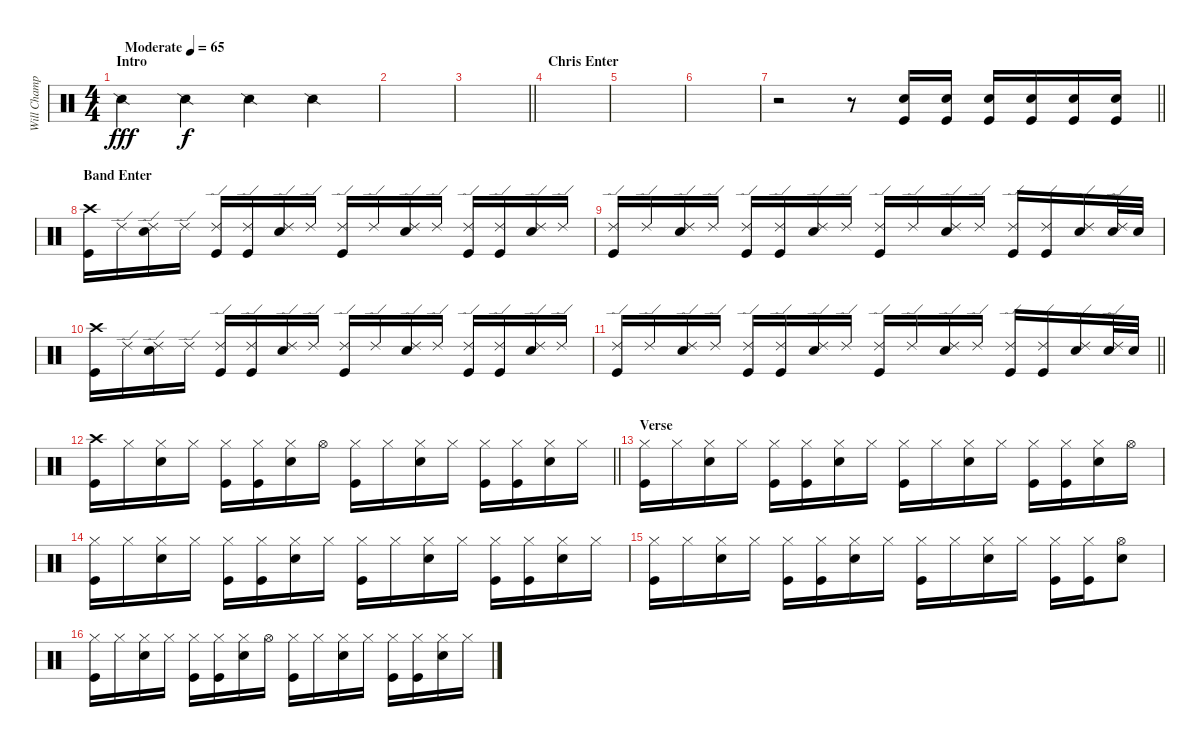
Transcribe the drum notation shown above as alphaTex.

\track ("Will Champion-Drums" "Will Champ") {instrument percussion}
\staff {score}
\articulation defaults
\ts (4 4)
\section ("" "Intro")
\tempo (65 "Moderate")
\clef neutral
\ks c "Snare (side stick) 2".4{dy fff} "Snare (side stick) 2".4{dy f} "Snare (side stick) 2".4 "Snare (side stick) 2".4
|
|
\barLineRight lightlight
|
\section ("" "Chris Enter")
|
|
|
\barLineRight lightlight
r.2 r.8 ("Snare (hit) 2" "Kick (hit)").16 ("Snare (hit) 2" "Kick (hit)").16 ("Snare (hit) 2" "Kick (hit)").16 ("Snare (hit) 2" "Kick (hit)").16 ("Snare (hit) 2" "Kick (hit)").16 ("Snare (hit) 2" "Kick (hit)").16 |
\section ("" "Band Enter")
("Crash high (hit)" "Kick (hit)").16 "Ride (edge) 2".16 ("Ride (edge) 2" "Snare (hit) 2").16 "Ride (edge) 2".16 ("Ride (edge) 2" "Kick (hit)").16 ("Ride (edge) 2" "Kick (hit)").16 ("Ride (edge) 2" "Snare (hit) 2").16 "Ride (edge) 2".16 ("Ride (edge) 2" "Kick (hit)").16 "Ride (edge) 2".16 ("Ride (edge) 2" "Snare (hit) 2").16 "Ride (edge) 2".16 ("Ride (edge) 2" "Kick (hit)").16 ("Ride (edge) 2" "Kick (hit)").16 ("Ride (edge) 2" "Snare (hit) 2").16 "Ride (edge) 2".16 |
("Ride (edge) 2" "Kick (hit)").16 "Ride (edge) 2".16 ("Ride (edge) 2" "Snare (hit) 2").16 "Ride (edge) 2".16 ("Ride (edge) 2" "Kick (hit)").16 ("Ride (edge) 2" "Kick (hit)").16 ("Ride (edge) 2" "Snare (hit) 2").16 "Ride (edge) 2".16 ("Ride (edge) 2" "Kick (hit)").16 "Ride (edge) 2".16 ("Ride (edge) 2" "Snare (hit) 2").16 "Ride (edge) 2".16 ("Ride (edge) 2" "Kick (hit)").16 ("Ride (edge) 2" "Kick (hit)").16 ("Ride (edge) 2" "Snare (hit) 2").16 ("Ride (edge) 2" "Snare (hit) 2").32 "Snare (hit) 2".32 |
("Crash high (hit)" "Kick (hit)").16 "Ride (edge) 2".16 ("Ride (edge) 2" "Snare (hit) 2").16 "Ride (edge) 2".16 ("Ride (edge) 2" "Kick (hit)").16 ("Ride (edge) 2" "Kick (hit)").16 ("Ride (edge) 2" "Snare (hit) 2").16 "Ride (edge) 2".16 ("Ride (edge) 2" "Kick (hit)").16 "Ride (edge) 2".16 ("Ride (edge) 2" "Snare (hit) 2").16 "Ride (edge) 2".16 ("Ride (edge) 2" "Kick (hit)").16 ("Ride (edge) 2" "Kick (hit)").16 ("Ride (edge) 2" "Snare (hit) 2").16 "Ride (edge) 2".16 |
\barLineRight lightlight
("Ride (edge) 2" "Kick (hit)").16 "Ride (edge) 2".16 ("Ride (edge) 2" "Snare (hit) 2").16 "Ride (edge) 2".16 ("Ride (edge) 2" "Kick (hit)").16 ("Ride (edge) 2" "Kick (hit)").16 ("Ride (edge) 2" "Snare (hit) 2").16 "Ride (edge) 2".16 ("Ride (edge) 2" "Kick (hit)").16 "Ride (edge) 2".16 ("Ride (edge) 2" "Snare (hit) 2").16 "Ride (edge) 2".16 ("Ride (edge) 2" "Kick (hit)").16 ("Ride (edge) 2" "Kick (hit)").16 ("Ride (edge) 2" "Snare (hit) 2").16 ("Ride (edge) 2" "Snare (hit) 2").32 "Snare (hit) 2".32 |
\barLineRight lightlight
("Crash high (hit)" "Kick (hit)").16 "Hi-Hat (closed)".16 ("Hi-Hat (closed)" "Snare (hit) 2").16 "Hi-Hat (closed)".16 ("Hi-Hat (closed)" "Kick (hit)").16 ("Hi-Hat (closed)" "Kick (hit)").16 ("Hi-Hat (closed)" "Snare (hit) 2").16 "Hi-Hat (open)".16 ("Hi-Hat (closed)" "Kick (hit)").16 "Hi-Hat (closed)".16 ("Hi-Hat (closed)" "Snare (hit) 2").16 "Hi-Hat (closed)".16 ("Hi-Hat (closed)" "Kick (hit)").16 ("Hi-Hat (closed)" "Kick (hit)").16 ("Hi-Hat (closed)" "Snare (hit) 2").16 "Hi-Hat (closed)".16 |
\section ("" "Verse")
("Hi-Hat (closed)" "Kick (hit)").16 "Hi-Hat (closed)".16 ("Hi-Hat (closed)" "Snare (hit) 2").16 "Hi-Hat (closed)".16 ("Hi-Hat (closed)" "Kick (hit)").16 ("Hi-Hat (closed)" "Kick (hit)").16 ("Hi-Hat (closed)" "Snare (hit) 2").16 "Hi-Hat (closed)".16 ("Hi-Hat (closed)" "Kick (hit)").16 "Hi-Hat (closed)".16 ("Hi-Hat (closed)" "Snare (hit) 2").16 "Hi-Hat (closed)".16 ("Hi-Hat (closed)" "Kick (hit)").16 ("Hi-Hat (closed)" "Kick (hit)").16 ("Hi-Hat (closed)" "Snare (hit) 2").16 "Hi-Hat (open)".16 |
("Hi-Hat (closed)" "Kick (hit)").16 "Hi-Hat (closed)".16 ("Hi-Hat (closed)" "Snare (hit) 2").16 "Hi-Hat (closed)".16 ("Hi-Hat (closed)" "Kick (hit)").16 ("Hi-Hat (closed)" "Kick (hit)").16 ("Hi-Hat (closed)" "Snare (hit) 2").16 "Hi-Hat (closed)".16 ("Hi-Hat (closed)" "Kick (hit)").16 "Hi-Hat (closed)".16 ("Hi-Hat (closed)" "Snare (hit) 2").16 "Hi-Hat (closed)".16 ("Hi-Hat (closed)" "Kick (hit)").16 ("Hi-Hat (closed)" "Kick (hit)").16 ("Hi-Hat (closed)" "Snare (hit) 2").16 "Hi-Hat (closed)".16 |
("Hi-Hat (closed)" "Kick (hit)").16 "Hi-Hat (closed)".16 ("Hi-Hat (closed)" "Snare (hit) 2").16 "Hi-Hat (closed)".16 ("Hi-Hat (closed)" "Kick (hit)").16 ("Hi-Hat (closed)" "Kick (hit)").16 ("Hi-Hat (closed)" "Snare (hit) 2").16 "Hi-Hat (closed)".16 ("Hi-Hat (closed)" "Kick (hit)").16 "Hi-Hat (closed)".16 ("Hi-Hat (closed)" "Snare (hit) 2").16 "Hi-Hat (closed)".16 ("Hi-Hat (closed)" "Kick (hit)").16 ("Hi-Hat (closed)" "Kick (hit)").16 ("Hi-Hat (open)" "Snare (hit) 2").8 |
("Hi-Hat (closed)" "Kick (hit)").16 "Hi-Hat (closed)".16 ("Hi-Hat (closed)" "Snare (hit) 2").16 "Hi-Hat (closed)".16 ("Hi-Hat (closed)" "Kick (hit)").16 ("Hi-Hat (closed)" "Kick (hit)").16 ("Hi-Hat (closed)" "Snare (hit) 2").16 "Hi-Hat (open)".16 ("Hi-Hat (closed)" "Kick (hit)").16 "Hi-Hat (closed)".16 ("Hi-Hat (closed)" "Snare (hit) 2").16 "Hi-Hat (closed)".16 ("Hi-Hat (closed)" "Kick (hit)").16 ("Hi-Hat (closed)" "Kick (hit)").16 ("Hi-Hat (closed)" "Snare (hit) 2").16 "Hi-Hat (closed)".16
